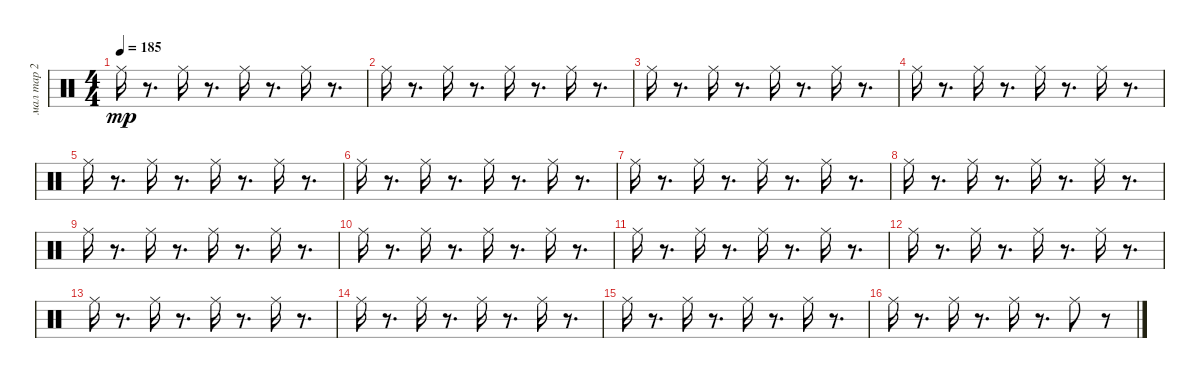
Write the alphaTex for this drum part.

\track ("мал тар 2" "мал тар 2") {instrument percussion}
\staff {score}
\articulation defaults
\ts (4 4)
\tempo 185
\clef neutral
\ks c "Ride (middle)".16{dy mp}
r.8{d} "Ride (middle)".16 r.8{d} "Ride (middle)".16 r.8{d} "Ride (middle)".16 r.8{d} |
"Ride (middle)".16 r.8{d} "Ride (middle)".16 r.8{d} "Ride (middle)".16 r.8{d} "Ride (middle)".16 r.8{d} |
"Ride (middle)".16 r.8{d} "Ride (middle)".16 r.8{d} "Ride (middle)".16 r.8{d} "Ride (middle)".16 r.8{d} |
"Ride (middle)".16 r.8{d} "Ride (middle)".16 r.8{d} "Ride (middle)".16 r.8{d} "Ride (middle)".16 r.8{d} |
"Ride (middle)".16 r.8{d} "Ride (middle)".16 r.8{d} "Ride (middle)".16 r.8{d} "Ride (middle)".16 r.8{d} |
"Ride (middle)".16 r.8{d} "Ride (middle)".16 r.8{d} "Ride (middle)".16 r.8{d} "Ride (middle)".16 r.8{d} |
"Ride (middle)".16 r.8{d} "Ride (middle)".16 r.8{d} "Ride (middle)".16 r.8{d} "Ride (middle)".16 r.8{d} |
"Ride (middle)".16 r.8{d} "Ride (middle)".16 r.8{d} "Ride (middle)".16 r.8{d} "Ride (middle)".16 r.8{d} |
"Ride (middle)".16 r.8{d} "Ride (middle)".16 r.8{d} "Ride (middle)".16 r.8{d} "Ride (middle)".16 r.8{d} |
"Ride (middle)".16 r.8{d} "Ride (middle)".16 r.8{d} "Ride (middle)".16 r.8{d} "Ride (middle)".16 r.8{d} |
"Ride (middle)".16 r.8{d} "Ride (middle)".16 r.8{d} "Ride (middle)".16 r.8{d} "Ride (middle)".16 r.8{d} |
"Ride (middle)".16 r.8{d} "Ride (middle)".16 r.8{d} "Ride (middle)".16 r.8{d} "Ride (middle)".16 r.8{d} |
"Ride (middle)".16 r.8{d} "Ride (middle)".16 r.8{d} "Ride (middle)".16 r.8{d} "Ride (middle)".16 r.8{d} |
"Ride (middle)".16 r.8{d} "Ride (middle)".16 r.8{d} "Ride (middle)".16 r.8{d} "Ride (middle)".16 r.8{d} |
"Ride (middle)".16 r.8{d} "Ride (middle)".16 r.8{d} "Ride (middle)".16 r.8{d} "Ride (middle)".16 r.8{d} |
"Ride (middle)".16 r.8{d} "Ride (middle)".16 r.8{d} "Ride (middle)".16 r.8{d} "Ride (middle)".8 r.8
